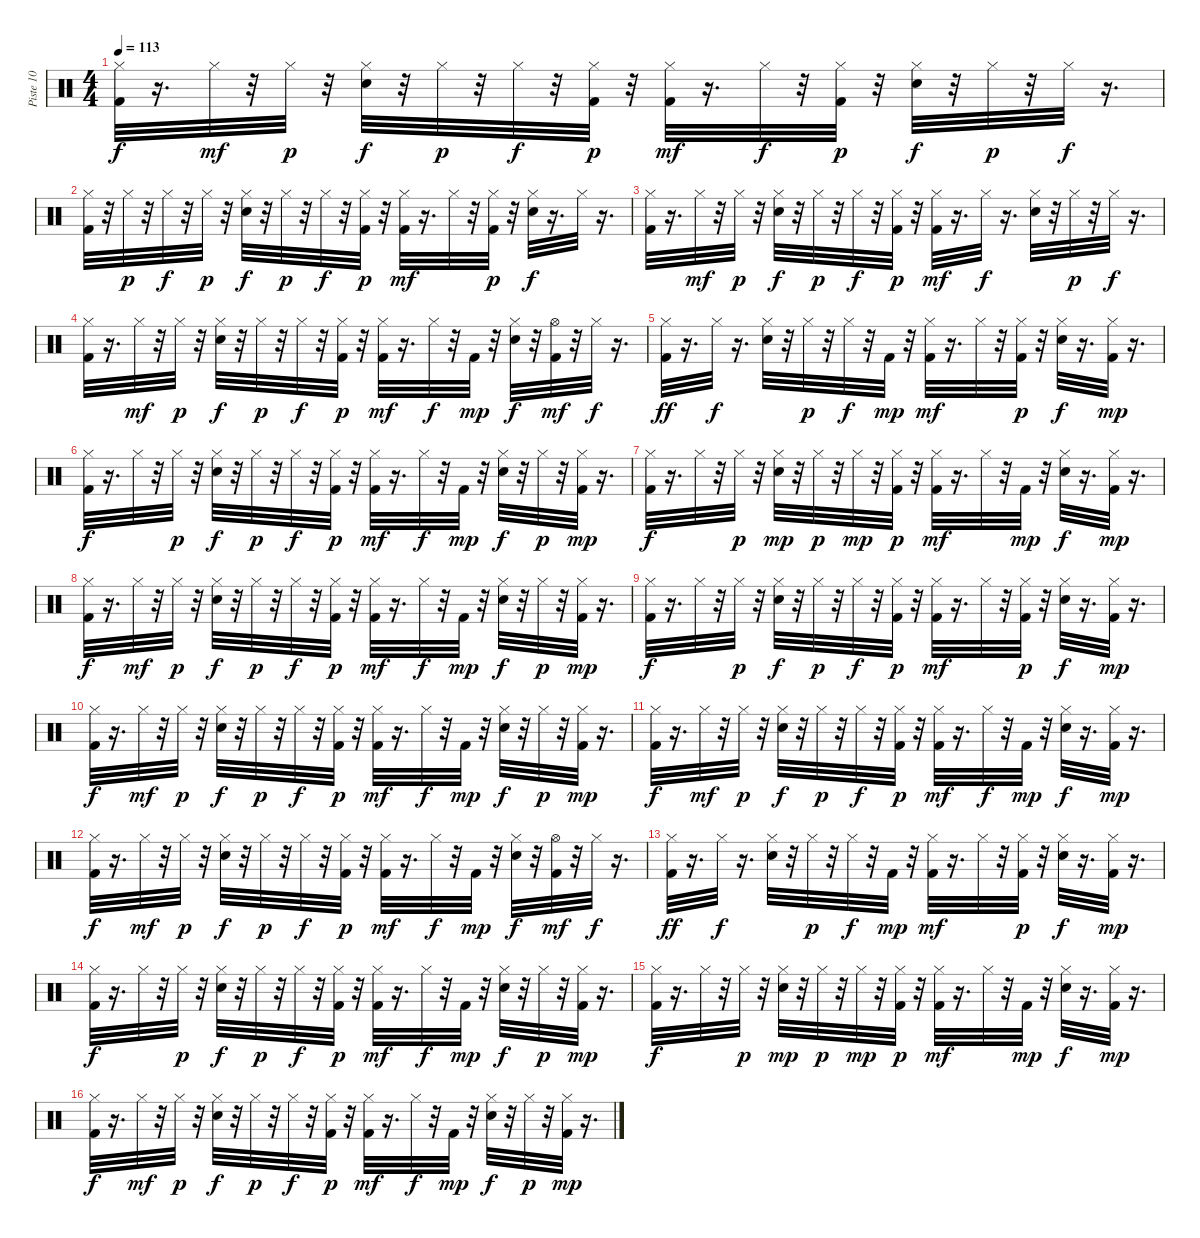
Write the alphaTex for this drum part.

\track ("Piste 10" "Piste 10") {instrument percussion}
\staff {score}
\articulation defaults
\ts (4 4)
\tempo 113
\clef neutral
\ks c
("Kick (hit) 2" "Hi-Hat (closed)").32{dy f} r.16{d} "Hi-Hat (closed)".32{dy mf} r.32 "Hi-Hat (closed)".32{dy p} r.32 ("Electric Snare (hit)" "Hi-Hat (closed)").32{dy f} r.32 "Hi-Hat (closed)".32{dy p} r.32 "Hi-Hat (closed)".32{dy f} r.32 ("Kick (hit) 2" "Hi-Hat (closed)").32{dy p} r.32 ("Kick (hit) 2" "Hi-Hat (closed)").32{dy mf} r.16{d} "Hi-Hat (closed)".32{dy f} r.32 ("Kick (hit) 2" "Hi-Hat (closed)").32{dy p} r.32 ("Electric Snare (hit)" "Hi-Hat (closed)").32{dy f} r.32 "Hi-Hat (closed)".32{dy p} r.32 "Hi-Hat (closed)".32{dy f} r.16{d} |
("Kick (hit) 2" "Hi-Hat (closed)").32 r.32 "Hi-Hat (closed)".32{dy p} r.32 "Hi-Hat (closed)".32{dy f} r.32 "Hi-Hat (closed)".32{dy p} r.32 ("Electric Snare (hit)" "Hi-Hat (closed)").32{dy f} r.32 "Hi-Hat (closed)".32{dy p} r.32 "Hi-Hat (closed)".32{dy f} r.32 ("Kick (hit) 2" "Hi-Hat (closed)").32{dy p} r.32 ("Kick (hit) 2" "Hi-Hat (closed)").32{dy mf} r.16{d} "Hi-Hat (closed)".32 r.32 ("Kick (hit) 2" "Hi-Hat (closed)").32{dy p} r.32 ("Electric Snare (hit)" "Hi-Hat (closed)").32{dy f} r.16{d} "Hi-Hat (closed)".32 r.16{d} |
("Kick (hit) 2" "Hi-Hat (closed)").32 r.16{d} "Hi-Hat (closed)".32{dy mf} r.32 "Hi-Hat (closed)".32{dy p} r.32 ("Electric Snare (hit)" "Hi-Hat (closed)").32{dy f} r.32 "Hi-Hat (closed)".32{dy p} r.32 "Hi-Hat (closed)".32{dy f} r.32 ("Kick (hit) 2" "Hi-Hat (closed)").32{dy p} r.32 ("Kick (hit) 2" "Hi-Hat (closed)").32{dy mf} r.16{d} "Hi-Hat (closed)".32{dy f} r.16{d} ("Electric Snare (hit)" "Hi-Hat (closed)").32 r.32 "Hi-Hat (closed)".32{dy p} r.32 "Hi-Hat (closed)".32{dy f} r.16{d} |
("Kick (hit) 2" "Hi-Hat (closed)").32 r.16{d} "Hi-Hat (closed)".32{dy mf} r.32 "Hi-Hat (closed)".32{dy p} r.32 ("Electric Snare (hit)" "Hi-Hat (closed)").32{dy f} r.32 "Hi-Hat (closed)".32{dy p} r.32 "Hi-Hat (closed)".32{dy f} r.32 ("Kick (hit) 2" "Hi-Hat (closed)").32{dy p} r.32 ("Kick (hit) 2" "Hi-Hat (closed)").32{dy mf} r.16{d} "Hi-Hat (closed)".32{dy f} r.32 "Kick (hit) 2".32{dy mp} r.32 ("Electric Snare (hit)" "Hi-Hat (closed)").32{dy f} r.32 ("Kick (hit) 2" "Hi-Hat (open)").32{dy mf} r.32 "Hi-Hat (closed)".32{dy f} r.16{d} |
("Kick (hit) 2" "Hi-Hat (closed)").32{dy ff} r.16{d} "Hi-Hat (closed)".32{dy f} r.16{d} ("Electric Snare (hit)" "Hi-Hat (closed)").32 r.32 "Hi-Hat (closed)".32{dy p} r.32 "Hi-Hat (closed)".32{dy f} r.32 "Kick (hit) 2".32{dy mp} r.32 ("Kick (hit) 2" "Hi-Hat (closed)").32{dy mf} r.16{d} "Hi-Hat (closed)".32 r.32 ("Kick (hit) 2" "Hi-Hat (closed)").32{dy p} r.32 ("Electric Snare (hit)" "Hi-Hat (closed)").32{dy f} r.16{d} ("Kick (hit) 2" "Hi-Hat (closed)").32{dy mp} r.16{d} |
("Kick (hit) 2" "Hi-Hat (closed)").32{dy f} r.16{d} "Hi-Hat (closed)".32 r.32 "Hi-Hat (closed)".32{dy p} r.32 ("Electric Snare (hit)" "Hi-Hat (closed)").32{dy f} r.32 "Hi-Hat (closed)".32{dy p} r.32 "Hi-Hat (closed)".32{dy f} r.32 ("Kick (hit) 2" "Hi-Hat (closed)").32{dy p} r.32 ("Kick (hit) 2" "Hi-Hat (closed)").32{dy mf} r.16{d} "Hi-Hat (closed)".32{dy f} r.32 "Kick (hit) 2".32{dy mp} r.32 ("Electric Snare (hit)" "Hi-Hat (closed)").32{dy f} r.32 "Hi-Hat (closed)".32{dy p} r.32 ("Kick (hit) 2" "Hi-Hat (closed)").32{dy mp} r.16{d} |
("Kick (hit) 2" "Hi-Hat (closed)").32{dy f} r.16{d} "Hi-Hat (closed)".32 r.32 "Hi-Hat (closed)".32{dy p} r.32 ("Electric Snare (hit)" "Hi-Hat (closed)").32{dy mp} r.32 "Hi-Hat (closed)".32{dy p} r.32 "Hi-Hat (closed)".32{dy mp} r.32 ("Kick (hit) 2" "Hi-Hat (closed)").32{dy p} r.32 ("Kick (hit) 2" "Hi-Hat (closed)").32{dy mf} r.16{d} "Hi-Hat (closed)".32 r.32 "Kick (hit) 2".32{dy mp} r.32 ("Electric Snare (hit)" "Hi-Hat (closed)").32{dy f} r.16{d} ("Kick (hit) 2" "Hi-Hat (closed)").32{dy mp} r.16{d} |
("Kick (hit) 2" "Hi-Hat (closed)").32{dy f} r.16{d} "Hi-Hat (closed)".32{dy mf} r.32 "Hi-Hat (closed)".32{dy p} r.32 ("Electric Snare (hit)" "Hi-Hat (closed)").32{dy f} r.32 "Hi-Hat (closed)".32{dy p} r.32 "Hi-Hat (closed)".32{dy f} r.32 ("Kick (hit) 2" "Hi-Hat (closed)").32{dy p} r.32 ("Kick (hit) 2" "Hi-Hat (closed)").32{dy mf} r.16{d} "Hi-Hat (closed)".32{dy f} r.32 "Kick (hit) 2".32{dy mp} r.32 ("Electric Snare (hit)" "Hi-Hat (closed)").32{dy f} r.32 "Hi-Hat (closed)".32{dy p} r.32 ("Kick (hit) 2" "Hi-Hat (closed)").32{dy mp} r.16{d} |
("Kick (hit) 2" "Hi-Hat (closed)").32{dy f} r.16{d} "Hi-Hat (closed)".32 r.32 "Hi-Hat (closed)".32{dy p} r.32 ("Electric Snare (hit)" "Hi-Hat (closed)").32{dy f} r.32 "Hi-Hat (closed)".32{dy p} r.32 "Hi-Hat (closed)".32{dy f} r.32 ("Kick (hit) 2" "Hi-Hat (closed)").32{dy p} r.32 ("Kick (hit) 2" "Hi-Hat (closed)").32{dy mf} r.16{d} "Hi-Hat (closed)".32 r.32 ("Kick (hit) 2" "Hi-Hat (closed)").32{dy p} r.32 ("Electric Snare (hit)" "Hi-Hat (closed)").32{dy f} r.16{d} ("Kick (hit) 2" "Hi-Hat (closed)").32{dy mp} r.16{d} |
("Kick (hit) 2" "Hi-Hat (closed)").32{dy f} r.16{d} "Hi-Hat (closed)".32{dy mf} r.32 "Hi-Hat (closed)".32{dy p} r.32 ("Electric Snare (hit)" "Hi-Hat (closed)").32{dy f} r.32 "Hi-Hat (closed)".32{dy p} r.32 "Hi-Hat (closed)".32{dy f} r.32 ("Kick (hit) 2" "Hi-Hat (closed)").32{dy p} r.32 ("Kick (hit) 2" "Hi-Hat (closed)").32{dy mf} r.16{d} "Hi-Hat (closed)".32{dy f} r.32 "Kick (hit) 2".32{dy mp} r.32 ("Electric Snare (hit)" "Hi-Hat (closed)").32{dy f} r.32 "Hi-Hat (closed)".32{dy p} r.32 ("Kick (hit) 2" "Hi-Hat (closed)").32{dy mp} r.16{d} |
("Kick (hit) 2" "Hi-Hat (closed)").32{dy f} r.16{d} "Hi-Hat (closed)".32{dy mf} r.32 "Hi-Hat (closed)".32{dy p} r.32 ("Electric Snare (hit)" "Hi-Hat (closed)").32{dy f} r.32 "Hi-Hat (closed)".32{dy p} r.32 "Hi-Hat (closed)".32{dy f} r.32 ("Kick (hit) 2" "Hi-Hat (closed)").32{dy p} r.32 ("Kick (hit) 2" "Hi-Hat (closed)").32{dy mf} r.16{d} "Hi-Hat (closed)".32{dy f} r.32 "Kick (hit) 2".32{dy mp} r.32 ("Electric Snare (hit)" "Hi-Hat (closed)").32{dy f} r.16{d} ("Kick (hit) 2" "Hi-Hat (closed)").32{dy mp} r.16{d} |
("Kick (hit) 2" "Hi-Hat (closed)").32{dy f} r.16{d} "Hi-Hat (closed)".32{dy mf} r.32 "Hi-Hat (closed)".32{dy p} r.32 ("Electric Snare (hit)" "Hi-Hat (closed)").32{dy f} r.32 "Hi-Hat (closed)".32{dy p} r.32 "Hi-Hat (closed)".32{dy f} r.32 ("Kick (hit) 2" "Hi-Hat (closed)").32{dy p} r.32 ("Kick (hit) 2" "Hi-Hat (closed)").32{dy mf} r.16{d} "Hi-Hat (closed)".32{dy f} r.32 "Kick (hit) 2".32{dy mp} r.32 ("Electric Snare (hit)" "Hi-Hat (closed)").32{dy f} r.32 ("Kick (hit) 2" "Hi-Hat (open)").32{dy mf} r.32 "Hi-Hat (closed)".32{dy f} r.16{d} |
("Kick (hit) 2" "Hi-Hat (closed)").32{dy ff} r.16{d} "Hi-Hat (closed)".32{dy f} r.16{d} ("Electric Snare (hit)" "Hi-Hat (closed)").32 r.32 "Hi-Hat (closed)".32{dy p} r.32 "Hi-Hat (closed)".32{dy f} r.32 "Kick (hit) 2".32{dy mp} r.32 ("Kick (hit) 2" "Hi-Hat (closed)").32{dy mf} r.16{d} "Hi-Hat (closed)".32 r.32 ("Kick (hit) 2" "Hi-Hat (closed)").32{dy p} r.32 ("Electric Snare (hit)" "Hi-Hat (closed)").32{dy f} r.16{d} ("Kick (hit) 2" "Hi-Hat (closed)").32{dy mp} r.16{d} |
("Kick (hit) 2" "Hi-Hat (closed)").32{dy f} r.16{d} "Hi-Hat (closed)".32 r.32 "Hi-Hat (closed)".32{dy p} r.32 ("Electric Snare (hit)" "Hi-Hat (closed)").32{dy f} r.32 "Hi-Hat (closed)".32{dy p} r.32 "Hi-Hat (closed)".32{dy f} r.32 ("Kick (hit) 2" "Hi-Hat (closed)").32{dy p} r.32 ("Kick (hit) 2" "Hi-Hat (closed)").32{dy mf} r.16{d} "Hi-Hat (closed)".32{dy f} r.32 "Kick (hit) 2".32{dy mp} r.32 ("Electric Snare (hit)" "Hi-Hat (closed)").32{dy f} r.32 "Hi-Hat (closed)".32{dy p} r.32 ("Kick (hit) 2" "Hi-Hat (closed)").32{dy mp} r.16{d} |
("Kick (hit) 2" "Hi-Hat (closed)").32{dy f} r.16{d} "Hi-Hat (closed)".32 r.32 "Hi-Hat (closed)".32{dy p} r.32 ("Electric Snare (hit)" "Hi-Hat (closed)").32{dy mp} r.32 "Hi-Hat (closed)".32{dy p} r.32 "Hi-Hat (closed)".32{dy mp} r.32 ("Kick (hit) 2" "Hi-Hat (closed)").32{dy p} r.32 ("Kick (hit) 2" "Hi-Hat (closed)").32{dy mf} r.16{d} "Hi-Hat (closed)".32 r.32 "Kick (hit) 2".32{dy mp} r.32 ("Electric Snare (hit)" "Hi-Hat (closed)").32{dy f} r.16{d} ("Kick (hit) 2" "Hi-Hat (closed)").32{dy mp} r.16{d} |
("Kick (hit) 2" "Hi-Hat (closed)").32{dy f} r.16{d} "Hi-Hat (closed)".32{dy mf} r.32 "Hi-Hat (closed)".32{dy p} r.32 ("Electric Snare (hit)" "Hi-Hat (closed)").32{dy f} r.32 "Hi-Hat (closed)".32{dy p} r.32 "Hi-Hat (closed)".32{dy f} r.32 ("Kick (hit) 2" "Hi-Hat (closed)").32{dy p} r.32 ("Kick (hit) 2" "Hi-Hat (closed)").32{dy mf} r.16{d} "Hi-Hat (closed)".32{dy f} r.32 "Kick (hit) 2".32{dy mp} r.32 ("Electric Snare (hit)" "Hi-Hat (closed)").32{dy f} r.32 "Hi-Hat (closed)".32{dy p} r.32 ("Kick (hit) 2" "Hi-Hat (closed)").32{dy mp} r.16{d}
